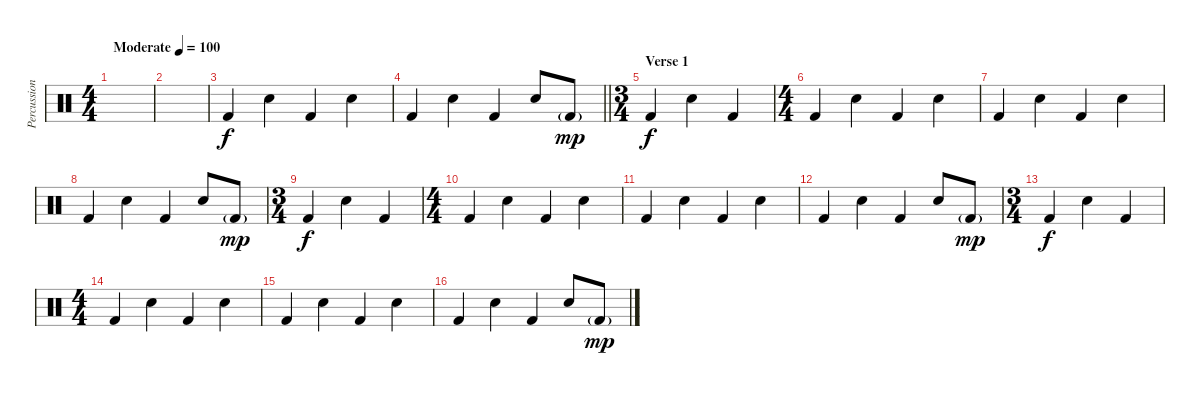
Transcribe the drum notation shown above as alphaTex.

\track ("Percussion" "Percussion") {instrument percussion}
\staff {score}
\articulation defaults
\ts (4 4)
\tempo (100 "Moderate")
\clef neutral
\ks c
|
|
"Kick (hit) 2".4 "Snare (hit) 2".4 "Kick (hit) 2".4 "Snare (hit) 2".4 |
\barLineRight lightlight "Kick (hit) 2".4 "Snare (hit) 2".4 "Kick (hit) 2".4 "Snare (hit) 2".8 "Kick (hit) 2"{g}.8{dy mp}
|
\ts (3 4)
\section ("" "Verse 1")
"Kick (hit) 2".4{dy f} "Snare (hit) 2".4 "Kick (hit) 2".4 |
\ts (4 4)
"Kick (hit) 2".4 "Snare (hit) 2".4 "Kick (hit) 2".4 "Snare (hit) 2".4 |
"Kick (hit) 2".4 "Snare (hit) 2".4 "Kick (hit) 2".4 "Snare (hit) 2".4 |
"Kick (hit) 2".4 "Snare (hit) 2".4 "Kick (hit) 2".4 "Snare (hit) 2".8 "Kick (hit) 2"{g}.8{dy mp} |
\ts (3 4)
"Kick (hit) 2".4{dy f} "Snare (hit) 2".4 "Kick (hit) 2".4 |
\ts (4 4)
"Kick (hit) 2".4 "Snare (hit) 2".4 "Kick (hit) 2".4 "Snare (hit) 2".4 |
"Kick (hit) 2".4 "Snare (hit) 2".4 "Kick (hit) 2".4 "Snare (hit) 2".4 |
"Kick (hit) 2".4 "Snare (hit) 2".4 "Kick (hit) 2".4 "Snare (hit) 2".8 "Kick (hit) 2"{g}.8{dy mp} |
\ts (3 4)
"Kick (hit) 2".4{dy f} "Snare (hit) 2".4 "Kick (hit) 2".4 |
\ts (4 4)
"Kick (hit) 2".4 "Snare (hit) 2".4 "Kick (hit) 2".4 "Snare (hit) 2".4 |
"Kick (hit) 2".4 "Snare (hit) 2".4 "Kick (hit) 2".4 "Snare (hit) 2".4 |
"Kick (hit) 2".4 "Snare (hit) 2".4 "Kick (hit) 2".4 "Snare (hit) 2".8 "Kick (hit) 2"{g}.8{dy mp}
